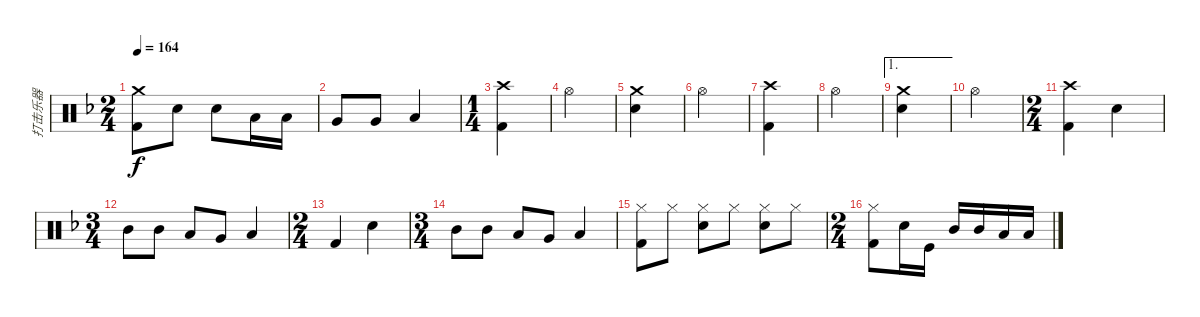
\track ("打击乐器" "打击乐器") {instrument percussion}
\staff {score}
\articulation defaults
\ts (2 4)
\tempo 164
\clef neutral
\ks f
("Crash medium (hit)" "Kick (hit) 2").8{dy f} "Snare (hit) 2".8 "Snare (hit) 2".8 "Low Tom (hit)".16 "Low Tom (hit)".16 |
"Very Low Tom (hit)".8 "Very Low Tom (hit)".8 "Low Floor Tom (hit)".4 |
\ts (1 4)
("Crash high (hit)" "Kick (hit) 2").4 |
"Hi-Hat (open)".4 |
("Crash medium (hit)" "Snare (hit) 2").4 |
"Hi-Hat (open)".4 |
("Crash high (hit)" "Kick (hit) 2").4 |
"Hi-Hat (open)".4 |
\ae 1
("Crash medium (hit)" "Snare (hit) 2").4 |
"Hi-Hat (open)".4 |
\ts (2 4)
("Crash high (hit)" "Kick (hit) 2").4 "Snare (hit) 2".4 |
\ts (3 4)
"Mid Tom (hit)".8 "Mid Tom (hit)".8 "Low Tom (hit)".8 "Very Low Tom (hit)".8 "Low Floor Tom (hit)".4 |
\ts (2 4)
"Kick (hit) 2".4 "Snare (hit) 2".4 |
\ts (3 4)
"Mid Tom (hit)".8 "Mid Tom (hit)".8 "Low Tom (hit)".8 "Very Low Tom (hit)".8 "Low Floor Tom (hit)".4 |
("Hi-Hat (closed)" "Kick (hit) 2").8 "Hi-Hat (closed)".8 ("Hi-Hat (closed)" "Snare (hit) 2").8 "Hi-Hat (closed)".8 ("Hi-Hat (closed)" "Snare (hit) 2").8 "Hi-Hat (closed)".8 |
\ts (2 4)
("Hi-Hat (closed)" "Kick (hit) 2").8 "Snare (hit) 2".16 "Kick (hit)".16 "Mid Tom (hit)".16 "Mid Tom (hit)".16 "Low Tom (hit)".16 "Low Tom (hit)".16
